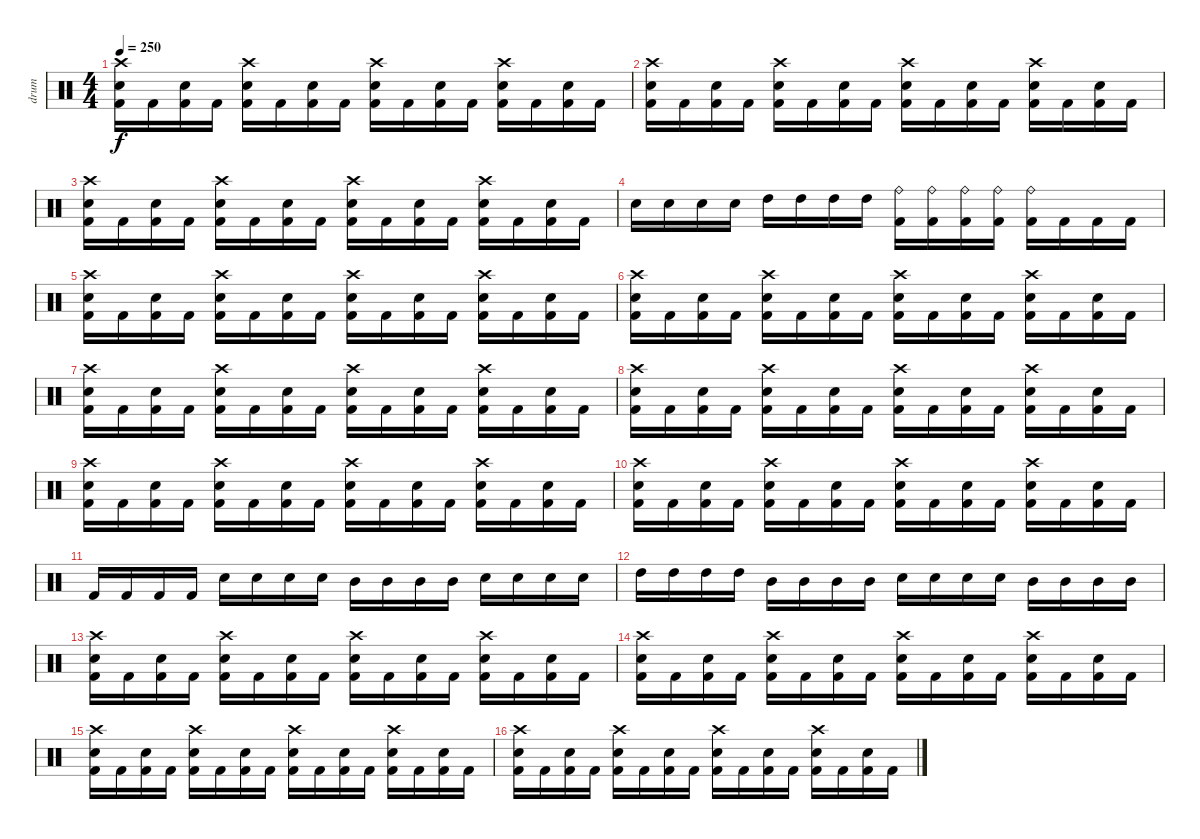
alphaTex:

\track ("drum" "drum") {instrument percussion}
\staff {score}
\articulation defaults
\ts (4 4)
\tempo 250
\clef neutral
\ks c
("Crash high (hit)" "Snare (hit) 2" "Kick (hit) 2").16{dy f} "Kick (hit) 2".16 ("Snare (hit) 2" "Kick (hit) 2").16 "Kick (hit) 2".16 ("Crash high (hit)" "Snare (hit) 2" "Kick (hit) 2").16 "Kick (hit) 2".16 ("Snare (hit) 2" "Kick (hit) 2").16 "Kick (hit) 2".16 ("Crash high (hit)" "Snare (hit) 2" "Kick (hit) 2").16 "Kick (hit) 2".16 ("Snare (hit) 2" "Kick (hit) 2").16 "Kick (hit) 2".16 ("Crash high (hit)" "Snare (hit) 2" "Kick (hit) 2").16 "Kick (hit) 2".16 ("Snare (hit) 2" "Kick (hit) 2").16 "Kick (hit) 2".16 |
("Crash high (hit)" "Snare (hit) 2" "Kick (hit) 2").16 "Kick (hit) 2".16 ("Snare (hit) 2" "Kick (hit) 2").16 "Kick (hit) 2".16 ("Crash high (hit)" "Snare (hit) 2" "Kick (hit) 2").16 "Kick (hit) 2".16 ("Snare (hit) 2" "Kick (hit) 2").16 "Kick (hit) 2".16 ("Crash high (hit)" "Snare (hit) 2" "Kick (hit) 2").16 "Kick (hit) 2".16 ("Snare (hit) 2" "Kick (hit) 2").16 "Kick (hit) 2".16 ("Crash high (hit)" "Snare (hit) 2" "Kick (hit) 2").16 "Kick (hit) 2".16 ("Snare (hit) 2" "Kick (hit) 2").16 "Kick (hit) 2".16 |
("Crash high (hit)" "Snare (hit) 2" "Kick (hit) 2").16 "Kick (hit) 2".16 ("Snare (hit) 2" "Kick (hit) 2").16 "Kick (hit) 2".16 ("Crash high (hit)" "Snare (hit) 2" "Kick (hit) 2").16 "Kick (hit) 2".16 ("Snare (hit) 2" "Kick (hit) 2").16 "Kick (hit) 2".16 ("Crash high (hit)" "Snare (hit) 2" "Kick (hit) 2").16 "Kick (hit) 2".16 ("Snare (hit) 2" "Kick (hit) 2").16 "Kick (hit) 2".16 ("Crash high (hit)" "Snare (hit) 2" "Kick (hit) 2").16 "Kick (hit) 2".16 ("Snare (hit) 2" "Kick (hit) 2").16 "Kick (hit) 2".16 |
"Snare (hit) 2".16 "Snare (hit) 2".16 "Snare (hit) 2".16 "Snare (hit) 2".16 "High Tom (hit)".16 "High Tom (hit)".16 "High Tom (hit)".16 "High Tom (hit)".16 ("Ride (bell)" "Kick (hit) 2").16 ("Ride (bell)" "Kick (hit) 2").16 ("Ride (bell)" "Kick (hit) 2").16 ("Ride (bell)" "Kick (hit) 2").16 ("Ride (bell)" "Kick (hit) 2").16 "Kick (hit) 2".16 "Kick (hit) 2".16 "Kick (hit) 2".16 |
("Crash high (hit)" "Snare (hit) 2" "Kick (hit) 2").16 "Kick (hit) 2".16 ("Snare (hit) 2" "Kick (hit) 2").16 "Kick (hit) 2".16 ("Crash high (hit)" "Snare (hit) 2" "Kick (hit) 2").16 "Kick (hit) 2".16 ("Snare (hit) 2" "Kick (hit) 2").16 "Kick (hit) 2".16 ("Crash high (hit)" "Snare (hit) 2" "Kick (hit) 2").16 "Kick (hit) 2".16 ("Snare (hit) 2" "Kick (hit) 2").16 "Kick (hit) 2".16 ("Crash high (hit)" "Snare (hit) 2" "Kick (hit) 2").16 "Kick (hit) 2".16 ("Snare (hit) 2" "Kick (hit) 2").16 "Kick (hit) 2".16 |
("Crash high (hit)" "Snare (hit) 2" "Kick (hit) 2").16 "Kick (hit) 2".16 ("Snare (hit) 2" "Kick (hit) 2").16 "Kick (hit) 2".16 ("Crash high (hit)" "Snare (hit) 2" "Kick (hit) 2").16 "Kick (hit) 2".16 ("Snare (hit) 2" "Kick (hit) 2").16 "Kick (hit) 2".16 ("Crash high (hit)" "Snare (hit) 2" "Kick (hit) 2").16 "Kick (hit) 2".16 ("Snare (hit) 2" "Kick (hit) 2").16 "Kick (hit) 2".16 ("Crash high (hit)" "Snare (hit) 2" "Kick (hit) 2").16 "Kick (hit) 2".16 ("Snare (hit) 2" "Kick (hit) 2").16 "Kick (hit) 2".16 |
("Crash high (hit)" "Snare (hit) 2" "Kick (hit) 2").16 "Kick (hit) 2".16 ("Snare (hit) 2" "Kick (hit) 2").16 "Kick (hit) 2".16 ("Crash high (hit)" "Snare (hit) 2" "Kick (hit) 2").16 "Kick (hit) 2".16 ("Snare (hit) 2" "Kick (hit) 2").16 "Kick (hit) 2".16 ("Crash high (hit)" "Snare (hit) 2" "Kick (hit) 2").16 "Kick (hit) 2".16 ("Snare (hit) 2" "Kick (hit) 2").16 "Kick (hit) 2".16 ("Crash high (hit)" "Snare (hit) 2" "Kick (hit) 2").16 "Kick (hit) 2".16 ("Snare (hit) 2" "Kick (hit) 2").16 "Kick (hit) 2".16 |
("Crash high (hit)" "Snare (hit) 2" "Kick (hit) 2").16 "Kick (hit) 2".16 ("Snare (hit) 2" "Kick (hit) 2").16 "Kick (hit) 2".16 ("Crash high (hit)" "Snare (hit) 2" "Kick (hit) 2").16 "Kick (hit) 2".16 ("Snare (hit) 2" "Kick (hit) 2").16 "Kick (hit) 2".16 ("Crash high (hit)" "Snare (hit) 2" "Kick (hit) 2").16 "Kick (hit) 2".16 ("Snare (hit) 2" "Kick (hit) 2").16 "Kick (hit) 2".16 ("Crash high (hit)" "Snare (hit) 2" "Kick (hit) 2").16 "Kick (hit) 2".16 ("Snare (hit) 2" "Kick (hit) 2").16 "Kick (hit) 2".16 |
("Crash high (hit)" "Snare (hit) 2" "Kick (hit) 2").16 "Kick (hit) 2".16 ("Snare (hit) 2" "Kick (hit) 2").16 "Kick (hit) 2".16 ("Crash high (hit)" "Snare (hit) 2" "Kick (hit) 2").16 "Kick (hit) 2".16 ("Snare (hit) 2" "Kick (hit) 2").16 "Kick (hit) 2".16 ("Crash high (hit)" "Snare (hit) 2" "Kick (hit) 2").16 "Kick (hit) 2".16 ("Snare (hit) 2" "Kick (hit) 2").16 "Kick (hit) 2".16 ("Crash high (hit)" "Snare (hit) 2" "Kick (hit) 2").16 "Kick (hit) 2".16 ("Snare (hit) 2" "Kick (hit) 2").16 "Kick (hit) 2".16 |
("Crash high (hit)" "Snare (hit) 2" "Kick (hit) 2").16 "Kick (hit) 2".16 ("Snare (hit) 2" "Kick (hit) 2").16 "Kick (hit) 2".16 ("Crash high (hit)" "Snare (hit) 2" "Kick (hit) 2").16 "Kick (hit) 2".16 ("Snare (hit) 2" "Kick (hit) 2").16 "Kick (hit) 2".16 ("Crash high (hit)" "Snare (hit) 2" "Kick (hit) 2").16 "Kick (hit) 2".16 ("Snare (hit) 2" "Kick (hit) 2").16 "Kick (hit) 2".16 ("Crash high (hit)" "Snare (hit) 2" "Kick (hit) 2").16 "Kick (hit) 2".16 ("Snare (hit) 2" "Kick (hit) 2").16 "Kick (hit) 2".16 |
"Kick (hit) 2".16 "Kick (hit) 2".16 "Kick (hit) 2".16 "Kick (hit) 2".16 "Snare (hit) 2".16 "Snare (hit) 2".16 "Snare (hit) 2".16 "Snare (hit) 2".16 "Mid Tom (hit)".16 "Mid Tom (hit)".16 "Mid Tom (hit)".16 "Mid Tom (hit)".16 "Snare (hit) 2".16 "Snare (hit) 2".16 "Snare (hit) 2".16 "Snare (hit) 2".16 |
"High Tom (hit)".16 "High Tom (hit)".16 "High Tom (hit)".16 "High Tom (hit)".16 "Mid Tom (hit)".16 "Mid Tom (hit)".16 "Mid Tom (hit)".16 "Mid Tom (hit)".16 "Snare (hit) 2".16 "Snare (hit) 2".16 "Snare (hit) 2".16 "Snare (hit) 2".16 "Mid Tom (hit)".16 "Mid Tom (hit)".16 "Mid Tom (hit)".16 "Mid Tom (hit)".16 |
("Crash high (hit)" "Snare (hit) 2" "Kick (hit) 2").16 "Kick (hit) 2".16 ("Snare (hit) 2" "Kick (hit) 2").16 "Kick (hit) 2".16 ("Crash high (hit)" "Snare (hit) 2" "Kick (hit) 2").16 "Kick (hit) 2".16 ("Snare (hit) 2" "Kick (hit) 2").16 "Kick (hit) 2".16 ("Crash high (hit)" "Snare (hit) 2" "Kick (hit) 2").16 "Kick (hit) 2".16 ("Snare (hit) 2" "Kick (hit) 2").16 "Kick (hit) 2".16 ("Crash high (hit)" "Snare (hit) 2" "Kick (hit) 2").16 "Kick (hit) 2".16 ("Snare (hit) 2" "Kick (hit) 2").16 "Kick (hit) 2".16 |
("Crash high (hit)" "Snare (hit) 2" "Kick (hit) 2").16 "Kick (hit) 2".16 ("Snare (hit) 2" "Kick (hit) 2").16 "Kick (hit) 2".16 ("Crash high (hit)" "Snare (hit) 2" "Kick (hit) 2").16 "Kick (hit) 2".16 ("Snare (hit) 2" "Kick (hit) 2").16 "Kick (hit) 2".16 ("Crash high (hit)" "Snare (hit) 2" "Kick (hit) 2").16 "Kick (hit) 2".16 ("Snare (hit) 2" "Kick (hit) 2").16 "Kick (hit) 2".16 ("Crash high (hit)" "Snare (hit) 2" "Kick (hit) 2").16 "Kick (hit) 2".16 ("Snare (hit) 2" "Kick (hit) 2").16 "Kick (hit) 2".16 |
("Crash high (hit)" "Snare (hit) 2" "Kick (hit) 2").16 "Kick (hit) 2".16 ("Snare (hit) 2" "Kick (hit) 2").16 "Kick (hit) 2".16 ("Crash high (hit)" "Snare (hit) 2" "Kick (hit) 2").16 "Kick (hit) 2".16 ("Snare (hit) 2" "Kick (hit) 2").16 "Kick (hit) 2".16 ("Crash high (hit)" "Snare (hit) 2" "Kick (hit) 2").16 "Kick (hit) 2".16 ("Snare (hit) 2" "Kick (hit) 2").16 "Kick (hit) 2".16 ("Crash high (hit)" "Snare (hit) 2" "Kick (hit) 2").16 "Kick (hit) 2".16 ("Snare (hit) 2" "Kick (hit) 2").16 "Kick (hit) 2".16 |
("Crash high (hit)" "Snare (hit) 2" "Kick (hit) 2").16 "Kick (hit) 2".16 ("Snare (hit) 2" "Kick (hit) 2").16 "Kick (hit) 2".16 ("Crash high (hit)" "Snare (hit) 2" "Kick (hit) 2").16 "Kick (hit) 2".16 ("Snare (hit) 2" "Kick (hit) 2").16 "Kick (hit) 2".16 ("Crash high (hit)" "Snare (hit) 2" "Kick (hit) 2").16 "Kick (hit) 2".16 ("Snare (hit) 2" "Kick (hit) 2").16 "Kick (hit) 2".16 ("Crash high (hit)" "Snare (hit) 2" "Kick (hit) 2").16 "Kick (hit) 2".16 ("Snare (hit) 2" "Kick (hit) 2").16 "Kick (hit) 2".16
